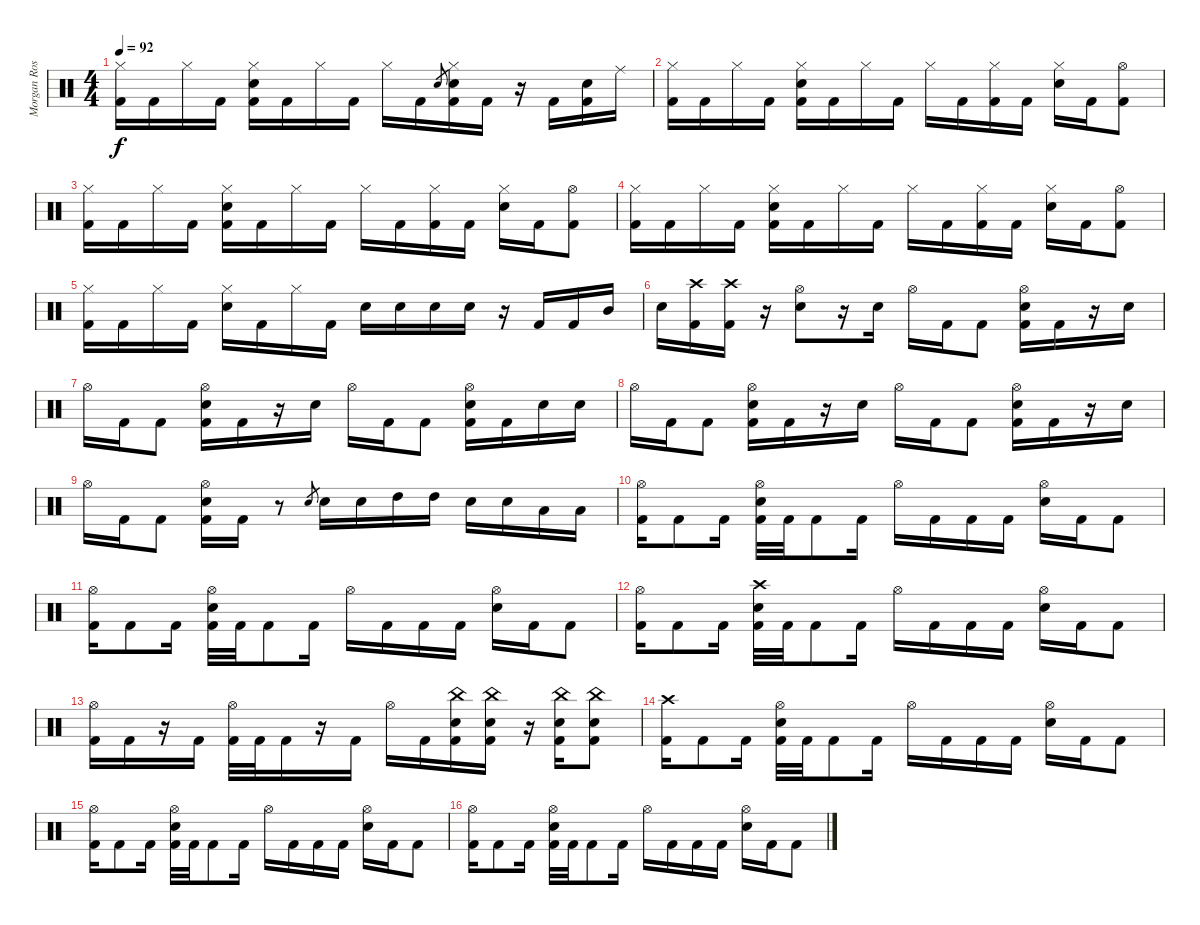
\track ("Morgan Rose - Drums" "Morgan Ros") {instrument percussion}
\staff {score}
\articulation defaults
\ts (4 4)
\tempo 92
\clef neutral
\ks c
("Hi-Hat (closed)" "Kick (hit) 2").16{dy f} "Kick (hit) 2".16 "Hi-Hat (closed)".16 "Kick (hit) 2".16 ("Hi-Hat (closed)" "Electric Snare (hit)" "Kick (hit) 2").16 "Kick (hit) 2".16 "Hi-Hat (closed)".16 "Kick (hit) 2".16 "Hi-Hat (closed)".16 "Kick (hit) 2".16 "Electric Snare (hit)".8{gr} ("Hi-Hat (closed)" "Electric Snare (hit)" "Kick (hit) 2").16 "Kick (hit) 2".16 r.16 "Kick (hit) 2".16 ("Electric Snare (hit)" "Kick (hit) 2").16 "Ride (middle)".16 |
("Hi-Hat (closed)" "Kick (hit) 2").16 "Kick (hit) 2".16 "Hi-Hat (closed)".16 "Kick (hit) 2".16 ("Hi-Hat (closed)" "Electric Snare (hit)" "Kick (hit) 2").16 "Kick (hit) 2".16 "Hi-Hat (closed)".16 "Kick (hit) 2".16 "Hi-Hat (closed)".16 "Kick (hit) 2".16 ("Hi-Hat (closed)" "Kick (hit) 2").16 "Kick (hit) 2".16 ("Hi-Hat (closed)" "Electric Snare (hit)").16 "Kick (hit) 2".16 ("Hi-Hat (open)" "Kick (hit) 2").8 |
("Hi-Hat (closed)" "Kick (hit) 2").16 "Kick (hit) 2".16 "Hi-Hat (closed)".16 "Kick (hit) 2".16 ("Hi-Hat (closed)" "Electric Snare (hit)" "Kick (hit) 2").16 "Kick (hit) 2".16 "Hi-Hat (closed)".16 "Kick (hit) 2".16 "Hi-Hat (closed)".16 "Kick (hit) 2".16 ("Hi-Hat (closed)" "Kick (hit) 2").16 "Kick (hit) 2".16 ("Hi-Hat (closed)" "Electric Snare (hit)").16 "Kick (hit) 2".16 ("Hi-Hat (open)" "Kick (hit) 2").8 |
("Hi-Hat (closed)" "Kick (hit) 2").16 "Kick (hit) 2".16 "Hi-Hat (closed)".16 "Kick (hit) 2".16 ("Hi-Hat (closed)" "Electric Snare (hit)" "Kick (hit) 2").16 "Kick (hit) 2".16 "Hi-Hat (closed)".16 "Kick (hit) 2".16 "Hi-Hat (closed)".16 "Kick (hit) 2".16 ("Hi-Hat (closed)" "Kick (hit) 2").16 "Kick (hit) 2".16 ("Hi-Hat (closed)" "Electric Snare (hit)").16 "Kick (hit) 2".16 ("Hi-Hat (open)" "Kick (hit) 2").8 |
("Hi-Hat (closed)" "Kick (hit) 2").16 "Kick (hit) 2".16 "Hi-Hat (closed)".16 "Kick (hit) 2".16 ("Hi-Hat (closed)" "Electric Snare (hit)").16 "Kick (hit) 2".16 "Hi-Hat (closed)".16 "Kick (hit) 2".16 "Electric Snare (hit)".16 "Electric Snare (hit)".16 "Electric Snare (hit)".16 "Electric Snare (hit)".16 r.16 "Kick (hit) 2".16 "Kick (hit) 2".16 "Mid Tom (hit)".16 |
"Electric Snare (hit)".16 ("Crash high (hit)" "Kick (hit) 2").16 ("Crash high (hit)" "Kick (hit) 2").16 r.16 ("Hi-Hat (open)" "Electric Snare (hit)").8 r.16 "Electric Snare (hit)".16 "Hi-Hat (open)".16 "Kick (hit) 2".16 "Kick (hit) 2".8 ("Hi-Hat (open)" "Electric Snare (hit)" "Kick (hit) 2").16 "Kick (hit) 2".16 r.16 "Electric Snare (hit)".16 |
"Hi-Hat (open)".16 "Kick (hit) 2".16 "Kick (hit) 2".8 ("Hi-Hat (open)" "Electric Snare (hit)" "Kick (hit) 2").16 "Kick (hit) 2".16 r.16 "Electric Snare (hit)".16 "Hi-Hat (open)".16 "Kick (hit) 2".16 "Kick (hit) 2".8 ("Hi-Hat (open)" "Electric Snare (hit)" "Kick (hit) 2").16 "Kick (hit) 2".16 "Electric Snare (hit)".16 "Electric Snare (hit)".16 |
"Hi-Hat (open)".16 "Kick (hit) 2".16 "Kick (hit) 2".8 ("Hi-Hat (open)" "Electric Snare (hit)" "Kick (hit) 2").16 "Kick (hit) 2".16 r.16 "Electric Snare (hit)".16 "Hi-Hat (open)".16 "Kick (hit) 2".16 "Kick (hit) 2".8 ("Hi-Hat (open)" "Electric Snare (hit)" "Kick (hit) 2").16 "Kick (hit) 2".16 r.16 "Electric Snare (hit)".16 |
"Hi-Hat (open)".16 "Kick (hit) 2".16 "Kick (hit) 2".8 ("Hi-Hat (open)" "Electric Snare (hit)" "Kick (hit) 2").16 "Kick (hit) 2".16 r.8 "Electric Snare (hit)".8{gr} "Electric Snare (hit)".16 "Electric Snare (hit)".16 "High Tom (hit)".16 "High Tom (hit)".16 "Electric Snare (hit)".16 "Electric Snare (hit)".16 "Low Tom (hit)".16 "Low Tom (hit)".16 |
("Hi-Hat (open)" "Kick (hit) 2").16 "Kick (hit) 2".8 "Kick (hit) 2".16 ("Hi-Hat (open)" "Electric Snare (hit)" "Kick (hit) 2").32 "Kick (hit) 2".32 "Kick (hit) 2".8 "Kick (hit) 2".16 "Hi-Hat (open)".16 "Kick (hit) 2".16 "Kick (hit) 2".16 "Kick (hit) 2".16 ("Hi-Hat (open)" "Electric Snare (hit)").16 "Kick (hit) 2".16 "Kick (hit) 2".8 |
("Hi-Hat (open)" "Kick (hit) 2").16 "Kick (hit) 2".8 "Kick (hit) 2".16 ("Hi-Hat (open)" "Electric Snare (hit)" "Kick (hit) 2").32 "Kick (hit) 2".32 "Kick (hit) 2".8 "Kick (hit) 2".16 "Hi-Hat (open)".16 "Kick (hit) 2".16 "Kick (hit) 2".16 "Kick (hit) 2".16 ("Hi-Hat (open)" "Electric Snare (hit)").16 "Kick (hit) 2".16 "Kick (hit) 2".8 |
("Hi-Hat (open)" "Kick (hit) 2").16 "Kick (hit) 2".8 "Kick (hit) 2".16 ("Crash high (hit)" "Electric Snare (hit)" "Kick (hit) 2").32 "Kick (hit) 2".32 "Kick (hit) 2".8 "Kick (hit) 2".16 "Hi-Hat (open)".16 "Kick (hit) 2".16 "Kick (hit) 2".16 "Kick (hit) 2".16 ("Hi-Hat (open)" "Electric Snare (hit)").16 "Kick (hit) 2".16 "Kick (hit) 2".8 |
("Hi-Hat (open)" "Kick (hit) 2").16 "Kick (hit) 2".16 r.16 "Kick (hit) 2".16 ("Hi-Hat (open)" "Kick (hit) 2").32 "Kick (hit) 2".32 "Kick (hit) 2".16 r.16 "Kick (hit) 2".16 "Hi-Hat (open)".16 "Kick (hit) 2".16 ("China (hit)" "Electric Snare (hit)" "Kick (hit) 2").16 ("China (hit)" "Electric Snare (hit)" "Kick (hit) 2").16 r.16 ("China (hit)" "Electric Snare (hit)" "Kick (hit) 2").16 ("China (hit)" "Electric Snare (hit)" "Kick (hit) 2").8 |
("Crash high (hit)" "Kick (hit) 2").16 "Kick (hit) 2".8 "Kick (hit) 2".16 ("Hi-Hat (open)" "Electric Snare (hit)" "Kick (hit) 2").32 "Kick (hit) 2".32 "Kick (hit) 2".8 "Kick (hit) 2".16 "Hi-Hat (open)".16 "Kick (hit) 2".16 "Kick (hit) 2".16 "Kick (hit) 2".16 ("Hi-Hat (open)" "Electric Snare (hit)").16 "Kick (hit) 2".16 "Kick (hit) 2".8 |
("Hi-Hat (open)" "Kick (hit) 2").16 "Kick (hit) 2".8 "Kick (hit) 2".16 ("Hi-Hat (open)" "Electric Snare (hit)" "Kick (hit) 2").32 "Kick (hit) 2".32 "Kick (hit) 2".8 "Kick (hit) 2".16 "Hi-Hat (open)".16 "Kick (hit) 2".16 "Kick (hit) 2".16 "Kick (hit) 2".16 ("Hi-Hat (open)" "Electric Snare (hit)").16 "Kick (hit) 2".16 "Kick (hit) 2".8 |
("Hi-Hat (open)" "Kick (hit) 2").16 "Kick (hit) 2".8 "Kick (hit) 2".16 ("Hi-Hat (open)" "Electric Snare (hit)" "Kick (hit) 2").32 "Kick (hit) 2".32 "Kick (hit) 2".8 "Kick (hit) 2".16 "Hi-Hat (open)".16 "Kick (hit) 2".16 "Kick (hit) 2".16 "Kick (hit) 2".16 ("Hi-Hat (open)" "Electric Snare (hit)").16 "Kick (hit) 2".16 "Kick (hit) 2".8
